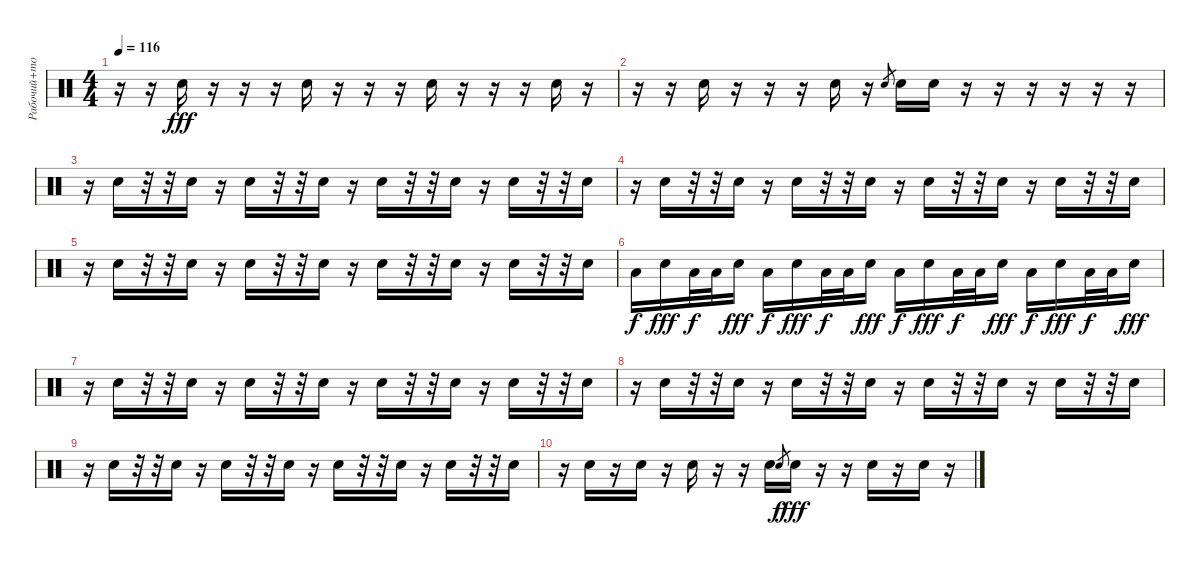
\track ("Рабочий+томы" "Рабочий+то") {instrument percussion}
\staff {score}
\articulation defaults
\ts (4 4)
\tempo 116
\clef neutral
\ks c
r.16{dy fff} r.16 "Snare (hit) 2".16 r.16 r.16 r.16 "Snare (hit) 2".16 r.16 r.16 r.16 "Snare (hit) 2".16 r.16 r.16 r.16 "Snare (hit) 2".16 r.16 |
r.16 r.16 "Snare (hit) 2".16 r.16 r.16 r.16 "Snare (hit) 2".16 r.16 "Snare (hit) 2".8{gr} "Snare (hit) 2".16 "Snare (hit) 2".16 r.16 r.16 r.16 r.16 r.16 r.16 |
r.16 "Snare (hit) 2".16 r.32 r.32 "Snare (hit) 2".16 r.16 "Snare (hit) 2".16 r.32 r.32 "Snare (hit) 2".16 r.16 "Snare (hit) 2".16 r.32 r.32 "Snare (hit) 2".16 r.16 "Snare (hit) 2".16 r.32 r.32 "Snare (hit) 2".16 |
r.16 "Snare (hit) 2".16 r.32 r.32 "Snare (hit) 2".16 r.16 "Snare (hit) 2".16 r.32 r.32 "Snare (hit) 2".16 r.16 "Snare (hit) 2".16 r.32 r.32 "Snare (hit) 2".16 r.16 "Snare (hit) 2".16 r.32 r.32 "Snare (hit) 2".16 |
r.16 "Snare (hit) 2".16 r.32 r.32 "Snare (hit) 2".16 r.16 "Snare (hit) 2".16 r.32 r.32 "Snare (hit) 2".16 r.16 "Snare (hit) 2".16 r.32 r.32 "Snare (hit) 2".16 r.16 "Snare (hit) 2".16 r.32 r.32 "Snare (hit) 2".16 |
"Low Floor Tom (hit)".16{dy f} "Snare (hit) 2".16{dy fff} "Low Floor Tom (hit)".32{dy f} "Low Floor Tom (hit)".32 "Snare (hit) 2".16{dy fff} "Low Floor Tom (hit)".16{dy f} "Snare (hit) 2".16{dy fff} "Low Floor Tom (hit)".32{dy f} "Low Floor Tom (hit)".32 "Snare (hit) 2".16{dy fff} "Low Floor Tom (hit)".16{dy f} "Snare (hit) 2".16{dy fff} "Low Floor Tom (hit)".32{dy f} "Low Floor Tom (hit)".32 "Snare (hit) 2".16{dy fff} "Low Floor Tom (hit)".16{dy f} "Snare (hit) 2".16{dy fff} "Low Floor Tom (hit)".32{dy f} "Low Floor Tom (hit)".32 "Snare (hit) 2".16{dy fff} |
r.16 "Snare (hit) 2".16 r.32 r.32 "Snare (hit) 2".16 r.16 "Snare (hit) 2".16 r.32 r.32 "Snare (hit) 2".16 r.16 "Snare (hit) 2".16 r.32 r.32 "Snare (hit) 2".16 r.16 "Snare (hit) 2".16 r.32 r.32 "Snare (hit) 2".16 |
r.16 "Snare (hit) 2".16 r.32 r.32 "Snare (hit) 2".16 r.16 "Snare (hit) 2".16 r.32 r.32 "Snare (hit) 2".16 r.16 "Snare (hit) 2".16 r.32 r.32 "Snare (hit) 2".16 r.16 "Snare (hit) 2".16 r.32 r.32 "Snare (hit) 2".16 |
r.16 "Snare (hit) 2".16 r.32 r.32 "Snare (hit) 2".16 r.16 "Snare (hit) 2".16 r.32 r.32 "Snare (hit) 2".16 r.16 "Snare (hit) 2".16 r.32 r.32 "Snare (hit) 2".16 r.16 "Snare (hit) 2".16 r.32 r.32 "Snare (hit) 2".16 |
r.16 "Snare (hit) 2".16 r.16 "Snare (hit) 2".16 r.16 "Snare (hit) 2".16 r.16 r.16 "Snare (hit) 2".16 "Snare (hit) 2".8{gr dy f} "Snare (hit) 2".16{dy fff} r.16 r.16 "Snare (hit)".16 r.16 "Snare (hit)".16 r.16
